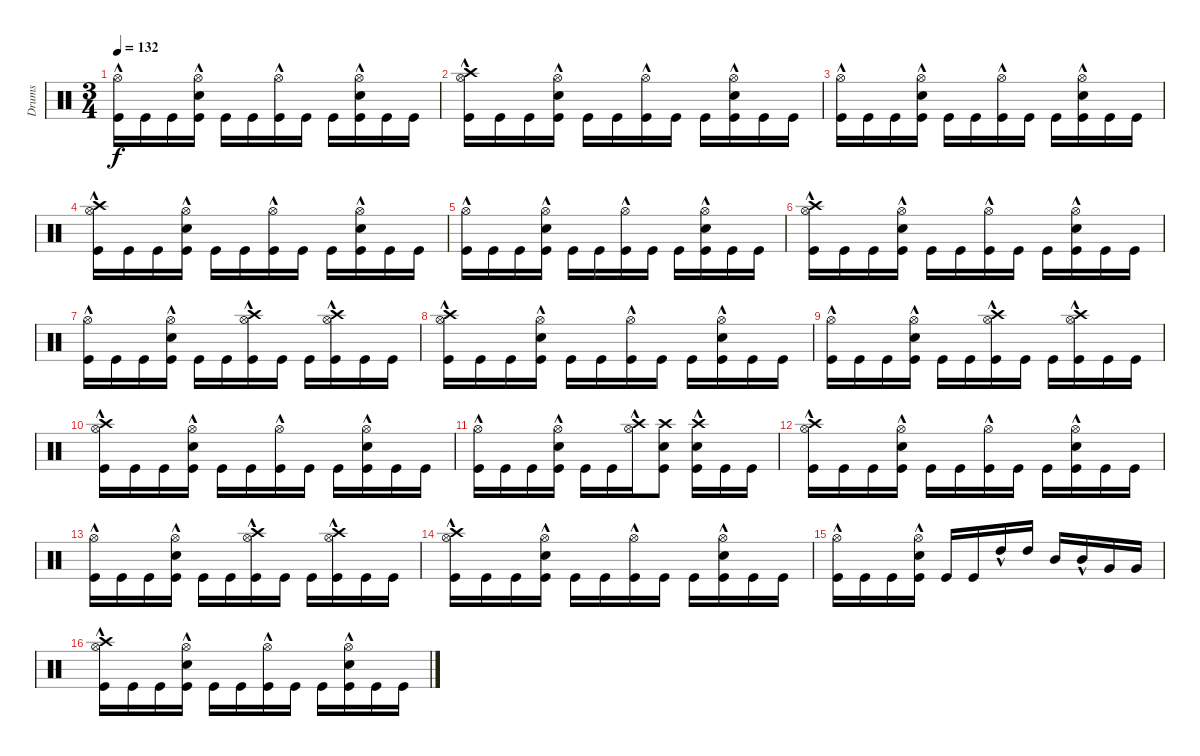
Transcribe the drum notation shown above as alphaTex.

\track ("Drums" "Drums") {instrument percussion}
\staff {score}
\articulation defaults
\ts (3 4)
\tempo 132
\clef neutral
\ks c
("Hi-Hat (open)"{hac} "Kick (hit)").16{dy f} "Kick (hit)".16 "Kick (hit)".16 ("Hi-Hat (open)"{hac} "Kick (hit)" "Electric Snare (hit)").16 "Kick (hit)".16 "Kick (hit)".16 ("Hi-Hat (open)"{hac} "Kick (hit)").16 "Kick (hit)".16 "Kick (hit)".16 ("Hi-Hat (open)"{hac} "Kick (hit)" "Electric Snare (hit)").16 "Kick (hit)".16 "Kick (hit)".16 |
("Crash high (hit)" "Hi-Hat (open)"{hac} "Kick (hit)").16 "Kick (hit)".16 "Kick (hit)".16 ("Hi-Hat (open)"{hac} "Kick (hit)" "Electric Snare (hit)").16 "Kick (hit)".16 "Kick (hit)".16 ("Hi-Hat (open)"{hac} "Kick (hit)").16 "Kick (hit)".16 "Kick (hit)".16 ("Hi-Hat (open)"{hac} "Kick (hit)" "Electric Snare (hit)").16 "Kick (hit)".16 "Kick (hit)".16 |
("Hi-Hat (open)"{hac} "Kick (hit)").16 "Kick (hit)".16 "Kick (hit)".16 ("Hi-Hat (open)"{hac} "Kick (hit)" "Electric Snare (hit)").16 "Kick (hit)".16 "Kick (hit)".16 ("Hi-Hat (open)"{hac} "Kick (hit)").16 "Kick (hit)".16 "Kick (hit)".16 ("Hi-Hat (open)"{hac} "Kick (hit)" "Electric Snare (hit)").16 "Kick (hit)".16 "Kick (hit)".16 |
("Crash high (hit)" "Hi-Hat (open)"{hac} "Kick (hit)").16 "Kick (hit)".16 "Kick (hit)".16 ("Hi-Hat (open)"{hac} "Kick (hit)" "Electric Snare (hit)").16 "Kick (hit)".16 "Kick (hit)".16 ("Hi-Hat (open)"{hac} "Kick (hit)").16 "Kick (hit)".16 "Kick (hit)".16 ("Hi-Hat (open)"{hac} "Kick (hit)" "Electric Snare (hit)").16 "Kick (hit)".16 "Kick (hit)".16 |
("Hi-Hat (open)"{hac} "Kick (hit)").16 "Kick (hit)".16 "Kick (hit)".16 ("Hi-Hat (open)"{hac} "Kick (hit)" "Electric Snare (hit)").16 "Kick (hit)".16 "Kick (hit)".16 ("Hi-Hat (open)"{hac} "Kick (hit)").16 "Kick (hit)".16 "Kick (hit)".16 ("Hi-Hat (open)"{hac} "Kick (hit)" "Electric Snare (hit)").16 "Kick (hit)".16 "Kick (hit)".16 |
("Crash high (hit)" "Hi-Hat (open)"{hac} "Kick (hit)").16 "Kick (hit)".16 "Kick (hit)".16 ("Hi-Hat (open)"{hac} "Kick (hit)" "Electric Snare (hit)").16 "Kick (hit)".16 "Kick (hit)".16 ("Hi-Hat (open)"{hac} "Kick (hit)").16 "Kick (hit)".16 "Kick (hit)".16 ("Hi-Hat (open)"{hac} "Kick (hit)" "Electric Snare (hit)").16 "Kick (hit)".16 "Kick (hit)".16 |
("Hi-Hat (open)"{hac} "Kick (hit)").16 "Kick (hit)".16 "Kick (hit)".16 ("Hi-Hat (open)"{hac} "Kick (hit)" "Electric Snare (hit)").16 "Kick (hit)".16 "Kick (hit)".16 ("Hi-Hat (open)"{hac} "Kick (hit)" "Crash high (hit)").16 "Kick (hit)".16 "Kick (hit)".16 ("Hi-Hat (open)"{hac} "Kick (hit)" "Crash high (hit)").16 "Kick (hit)".16 "Kick (hit)".16 |
("Hi-Hat (open)"{hac} "Kick (hit)" "Crash high (hit)").16 "Kick (hit)".16 "Kick (hit)".16 ("Hi-Hat (open)"{hac} "Kick (hit)" "Electric Snare (hit)").16 "Kick (hit)".16 "Kick (hit)".16 ("Hi-Hat (open)"{hac} "Kick (hit)").16 "Kick (hit)".16 "Kick (hit)".16 ("Hi-Hat (open)"{hac} "Kick (hit)" "Electric Snare (hit)").16 "Kick (hit)".16 "Kick (hit)".16 |
("Hi-Hat (open)"{hac} "Kick (hit)").16 "Kick (hit)".16 "Kick (hit)".16 ("Hi-Hat (open)"{hac} "Kick (hit)" "Electric Snare (hit)").16 "Kick (hit)".16 "Kick (hit)".16 ("Hi-Hat (open)"{hac} "Kick (hit)" "Crash high (hit)").16 "Kick (hit)".16 "Kick (hit)".16 ("Hi-Hat (open)"{hac} "Kick (hit)" "Crash high (hit)").16 "Kick (hit)".16 "Kick (hit)".16 |
("Hi-Hat (open)"{hac} "Kick (hit)" "Crash high (hit)").16 "Kick (hit)".16 "Kick (hit)".16 ("Hi-Hat (open)"{hac} "Kick (hit)" "Electric Snare (hit)").16 "Kick (hit)".16 "Kick (hit)".16 ("Hi-Hat (open)"{hac} "Kick (hit)").16 "Kick (hit)".16 "Kick (hit)".16 ("Hi-Hat (open)"{hac} "Kick (hit)" "Electric Snare (hit)").16 "Kick (hit)".16 "Kick (hit)".16 |
("Hi-Hat (open)"{hac} "Kick (hit)").16 "Kick (hit)".16 "Kick (hit)".16 ("Hi-Hat (open)"{hac} "Kick (hit)" "Electric Snare (hit)").16 "Kick (hit)".16 "Kick (hit)".16 ("Hi-Hat (open)"{hac} "Crash high (hit)").16 ("Kick (hit)" "Electric Snare (hit)" "Crash high (hit)").8 ("Electric Snare (hit)"{hac} "Kick (hit)" "Crash high (hit)").16 "Kick (hit)".16 "Kick (hit)".16 |
("Hi-Hat (open)"{hac} "Kick (hit)" "Crash high (hit)").16 "Kick (hit)".16 "Kick (hit)".16 ("Hi-Hat (open)"{hac} "Kick (hit)" "Electric Snare (hit)").16 "Kick (hit)".16 "Kick (hit)".16 ("Hi-Hat (open)"{hac} "Kick (hit)").16 "Kick (hit)".16 "Kick (hit)".16 ("Hi-Hat (open)"{hac} "Kick (hit)" "Electric Snare (hit)").16 "Kick (hit)".16 "Kick (hit)".16 |
("Hi-Hat (open)"{hac} "Kick (hit)").16 "Kick (hit)".16 "Kick (hit)".16 ("Hi-Hat (open)"{hac} "Kick (hit)" "Electric Snare (hit)").16 "Kick (hit)".16 "Kick (hit)".16 ("Hi-Hat (open)"{hac} "Kick (hit)" "Crash high (hit)").16 "Kick (hit)".16 "Kick (hit)".16 ("Hi-Hat (open)"{hac} "Kick (hit)" "Crash high (hit)").16 "Kick (hit)".16 "Kick (hit)".16 |
("Hi-Hat (open)"{hac} "Kick (hit)" "Crash high (hit)").16 "Kick (hit)".16 "Kick (hit)".16 ("Hi-Hat (open)"{hac} "Kick (hit)" "Electric Snare (hit)").16 "Kick (hit)".16 "Kick (hit)".16 ("Hi-Hat (open)"{hac} "Kick (hit)").16 "Kick (hit)".16 "Kick (hit)".16 ("Hi-Hat (open)"{hac} "Kick (hit)" "Electric Snare (hit)").16 "Kick (hit)".16 "Kick (hit)".16 |
("Hi-Hat (open)"{hac} "Kick (hit)").16 "Kick (hit)".16 "Kick (hit)".16 ("Hi-Hat (open)"{hac} "Kick (hit)" "Electric Snare (hit)").16 "Kick (hit)".16 "Kick (hit)".16 "High Tom (hit)"{hac}.16 "High Tom (hit)".16 "Mid Tom (hit)".16 "Mid Tom (hit)"{hac}.16 "Very Low Tom (hit)".16 "Very Low Tom (hit)".16 |
("Crash high (hit)" "Hi-Hat (open)"{hac} "Kick (hit)").16 "Kick (hit)".16 "Kick (hit)".16 ("Hi-Hat (open)"{hac} "Kick (hit)" "Electric Snare (hit)").16 "Kick (hit)".16 "Kick (hit)".16 ("Hi-Hat (open)"{hac} "Kick (hit)").16 "Kick (hit)".16 "Kick (hit)".16 ("Hi-Hat (open)"{hac} "Kick (hit)" "Electric Snare (hit)").16 "Kick (hit)".16 "Kick (hit)".16
